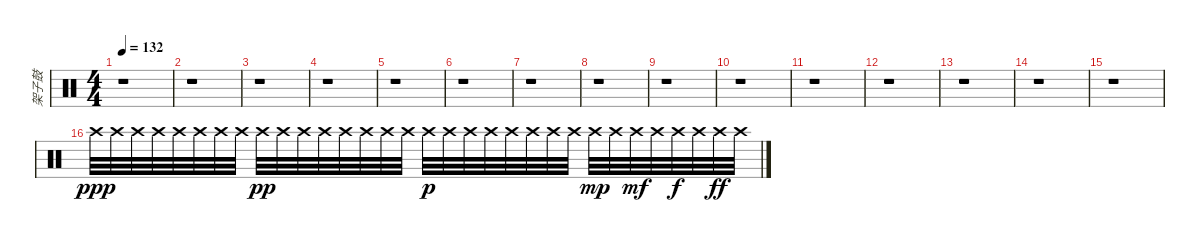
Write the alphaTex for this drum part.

\track ("架子鼓" "架子鼓") {instrument percussion}
\staff {score}
\articulation defaults
\ts (4 4)
\tempo 132
\clef neutral
\ks c
r.1{dy f} |
r.1 |
r.1 |
r.1 |
r.1 |
r.1 |
r.1 |
r.1 |
r.1 |
r.1 |
r.1 |
r.1 |
r.1 |
r.1 |
r.1 |
"Crash high (hit)".32{dy ppp} "Crash high (hit)".32 "Crash high (hit)".32 "Crash high (hit)".32 "Crash high (hit)".32 "Crash high (hit)".32 "Crash high (hit)".32 "Crash high (hit)".32 "Crash high (hit)".32{dy pp} "Crash high (hit)".32 "Crash high (hit)".32 "Crash high (hit)".32 "Crash high (hit)".32 "Crash high (hit)".32 "Crash high (hit)".32 "Crash high (hit)".32 "Crash high (hit)".32{dy p} "Crash high (hit)".32 "Crash high (hit)".32 "Crash high (hit)".32 "Crash high (hit)".32 "Crash high (hit)".32 "Crash high (hit)".32 "Crash high (hit)".32 "Crash high (hit)".32{dy mp} "Crash high (hit)".32 "Crash high (hit)".32{dy mf} "Crash high (hit)".32 "Crash high (hit)".32{dy f} "Crash high (hit)".32 "Crash high (hit)".32{dy ff} "Crash high (hit)".32
